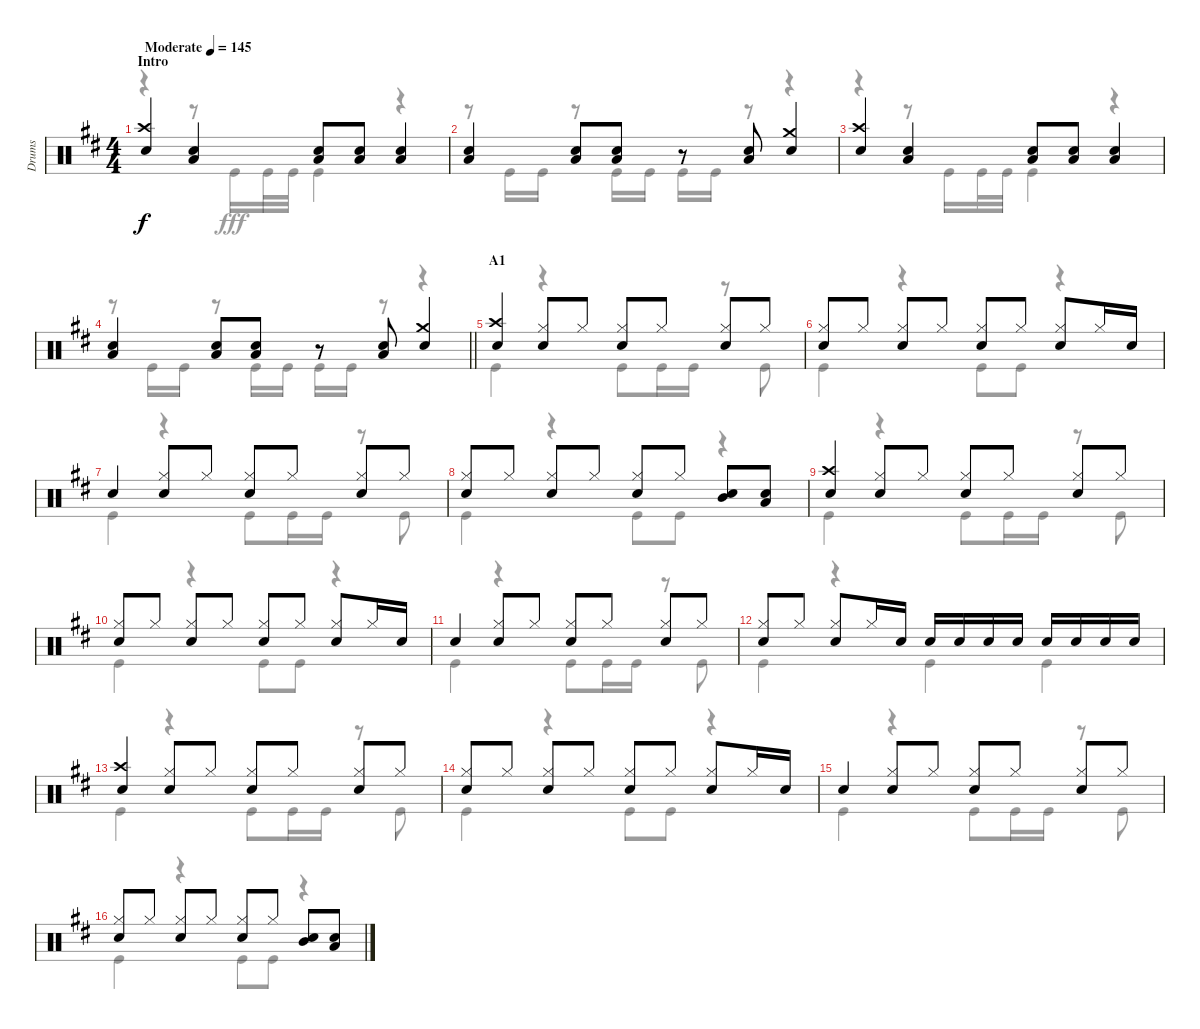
\track ("Drums" "Drums") {instrument percussion}
\staff {score}
\articulation defaults
\voice
\ts (4 4)
\section ("" "Intro")
\tempo (145 "Moderate")
\clef neutral
\ks d
("Crash high (hit)" "Snare (hit) 2").4{dy f} ("Snare (hit) 2" "Low Tom (hit)").4 ("Snare (hit) 2" "Low Tom (hit)").8 ("Snare (hit) 2" "Low Tom (hit)").8 ("Snare (hit) 2" "Low Tom (hit)").4 |
("Snare (hit) 2" "Low Tom (hit)").4 ("Low Tom (hit)" "Snare (hit) 2").8 ("Low Tom (hit)" "Snare (hit) 2").8 r.8 ("Low Tom (hit)" "Snare (hit) 2").8 ("Crash medium (hit)" "Snare (hit) 2").4 |
("Crash high (hit)" "Snare (hit) 2").4 ("Snare (hit) 2" "Low Tom (hit)").4 ("Snare (hit) 2" "Low Tom (hit)").8 ("Snare (hit) 2" "Low Tom (hit)").8 ("Snare (hit) 2" "Low Tom (hit)").4 |
\barLineRight lightlight
("Snare (hit) 2" "Low Tom (hit)").4 ("Low Tom (hit)" "Snare (hit) 2").8 ("Low Tom (hit)" "Snare (hit) 2").8 r.8 ("Low Tom (hit)" "Snare (hit) 2").8 ("Crash medium (hit)" "Snare (hit) 2").4 |
\section ("" "A1")
("Crash high (hit)" "Snare (hit) 2").4 ("Hi-Hat (closed)" "Snare (hit) 2").8 "Hi-Hat (closed)".8 ("Hi-Hat (closed)" "Snare (hit) 2").8 "Hi-Hat (closed)".8 ("Hi-Hat (closed)" "Snare (hit) 2").8 "Hi-Hat (closed)".8 |
("Hi-Hat (closed)" "Snare (hit) 2").8 "Hi-Hat (closed)".8 ("Hi-Hat (closed)" "Snare (hit) 2").8 "Hi-Hat (closed)".8 ("Hi-Hat (closed)" "Snare (hit) 2").8 "Hi-Hat (closed)".8 ("Hi-Hat (closed)" "Snare (hit) 2").8 "Hi-Hat (closed)".16 "Snare (hit) 2".16 |
"Snare (hit) 2".4 ("Hi-Hat (closed)" "Snare (hit) 2").8 "Hi-Hat (closed)".8 ("Hi-Hat (closed)" "Snare (hit) 2").8 "Hi-Hat (closed)".8 ("Hi-Hat (closed)" "Snare (hit) 2").8 "Hi-Hat (closed)".8 |
("Hi-Hat (closed)" "Snare (hit) 2").8 "Hi-Hat (closed)".8 ("Hi-Hat (closed)" "Snare (hit) 2").8 "Hi-Hat (closed)".8 ("Hi-Hat (closed)" "Snare (hit) 2").8 "Hi-Hat (closed)".8 ("Mid Tom (hit)" "Snare (hit) 2").8 ("Low Tom (hit)" "Snare (hit) 2").8 |
("Crash high (hit)" "Snare (hit) 2").4 ("Hi-Hat (closed)" "Snare (hit) 2").8 "Hi-Hat (closed)".8 ("Hi-Hat (closed)" "Snare (hit) 2").8 "Hi-Hat (closed)".8 ("Hi-Hat (closed)" "Snare (hit) 2").8 "Hi-Hat (closed)".8 |
("Hi-Hat (closed)" "Snare (hit) 2").8 "Hi-Hat (closed)".8 ("Hi-Hat (closed)" "Snare (hit) 2").8 "Hi-Hat (closed)".8 ("Hi-Hat (closed)" "Snare (hit) 2").8 "Hi-Hat (closed)".8 ("Hi-Hat (closed)" "Snare (hit) 2").8 "Hi-Hat (closed)".16 "Snare (hit) 2".16 |
"Snare (hit) 2".4 ("Hi-Hat (closed)" "Snare (hit) 2").8 "Hi-Hat (closed)".8 ("Hi-Hat (closed)" "Snare (hit) 2").8 "Hi-Hat (closed)".8 ("Hi-Hat (closed)" "Snare (hit) 2").8 "Hi-Hat (closed)".8 |
("Hi-Hat (closed)" "Snare (hit) 2").8 "Hi-Hat (closed)".8 ("Hi-Hat (closed)" "Snare (hit) 2").8 "Hi-Hat (closed)".16 "Snare (hit) 2".16 "Snare (hit) 2".16 "Snare (hit) 2".16 "Snare (hit) 2".16 "Snare (hit) 2".16 "Snare (hit) 2".16 "Snare (hit) 2".16 "Snare (hit) 2".16 "Snare (hit) 2".16 |
("Crash high (hit)" "Snare (hit) 2").4 ("Hi-Hat (closed)" "Snare (hit) 2").8 "Hi-Hat (closed)".8 ("Hi-Hat (closed)" "Snare (hit) 2").8 "Hi-Hat (closed)".8 ("Hi-Hat (closed)" "Snare (hit) 2").8 "Hi-Hat (closed)".8 |
("Hi-Hat (closed)" "Snare (hit) 2").8 "Hi-Hat (closed)".8 ("Hi-Hat (closed)" "Snare (hit) 2").8 "Hi-Hat (closed)".8 ("Hi-Hat (closed)" "Snare (hit) 2").8 "Hi-Hat (closed)".8 ("Hi-Hat (closed)" "Snare (hit) 2").8 "Hi-Hat (closed)".16 "Snare (hit) 2".16 |
"Snare (hit) 2".4 ("Hi-Hat (closed)" "Snare (hit) 2").8 "Hi-Hat (closed)".8 ("Hi-Hat (closed)" "Snare (hit) 2").8 "Hi-Hat (closed)".8 ("Hi-Hat (closed)" "Snare (hit) 2").8 "Hi-Hat (closed)".8 |
("Hi-Hat (closed)" "Snare (hit) 2").8 "Hi-Hat (closed)".8 ("Hi-Hat (closed)" "Snare (hit) 2").8 "Hi-Hat (closed)".8 ("Hi-Hat (closed)" "Snare (hit) 2").8 "Hi-Hat (closed)".8 ("Mid Tom (hit)" "Snare (hit) 2").8 ("Low Tom (hit)" "Snare (hit) 2").8
\voice
\clef neutral
\ottava regular
\simile none
\ks d
r.4{dy fff} r.8 "Kick (hit)".16 "Kick (hit)".32 "Kick (hit)".32 "Kick (hit)".4 r.4 |
r.8 "Kick (hit)".16 "Kick (hit)".16 r.8 "Kick (hit)".16 "Kick (hit)".16 "Kick (hit)".16 "Kick (hit)".16 r.8 r.4 |
r.4 r.8 "Kick (hit)".16 "Kick (hit)".32 "Kick (hit)".32 "Kick (hit)".4 r.4 |
\barLineRight lightlight
r.8 "Kick (hit)".16 "Kick (hit)".16 r.8 "Kick (hit)".16 "Kick (hit)".16 "Kick (hit)".16 "Kick (hit)".16 r.8 r.4 |
"Kick (hit)".4 r.4 "Kick (hit)".8 "Kick (hit)".16 "Kick (hit)".16 r.8 "Kick (hit)".8 |
"Kick (hit)".4 r.4 "Kick (hit)".8 "Kick (hit)".8 r.4 |
"Kick (hit)".4 r.4 "Kick (hit)".8 "Kick (hit)".16 "Kick (hit)".16 r.8 "Kick (hit)".8 |
"Kick (hit)".4 r.4 "Kick (hit)".8 "Kick (hit)".8 r.4 |
"Kick (hit)".4 r.4 "Kick (hit)".8 "Kick (hit)".16 "Kick (hit)".16 r.8 "Kick (hit)".8 |
"Kick (hit)".4 r.4 "Kick (hit)".8 "Kick (hit)".8 r.4 |
"Kick (hit)".4 r.4 "Kick (hit)".8 "Kick (hit)".16 "Kick (hit)".16 r.8 "Kick (hit)".8 |
"Kick (hit)".4 r.4 "Kick (hit)".4 "Kick (hit)".4 |
"Kick (hit)".4 r.4 "Kick (hit)".8 "Kick (hit)".16 "Kick (hit)".16 r.8 "Kick (hit)".8 |
"Kick (hit)".4 r.4 "Kick (hit)".8 "Kick (hit)".8 r.4 |
"Kick (hit)".4 r.4 "Kick (hit)".8 "Kick (hit)".16 "Kick (hit)".16 r.8 "Kick (hit)".8 |
"Kick (hit)".4 r.4 "Kick (hit)".8 "Kick (hit)".8 r.4
